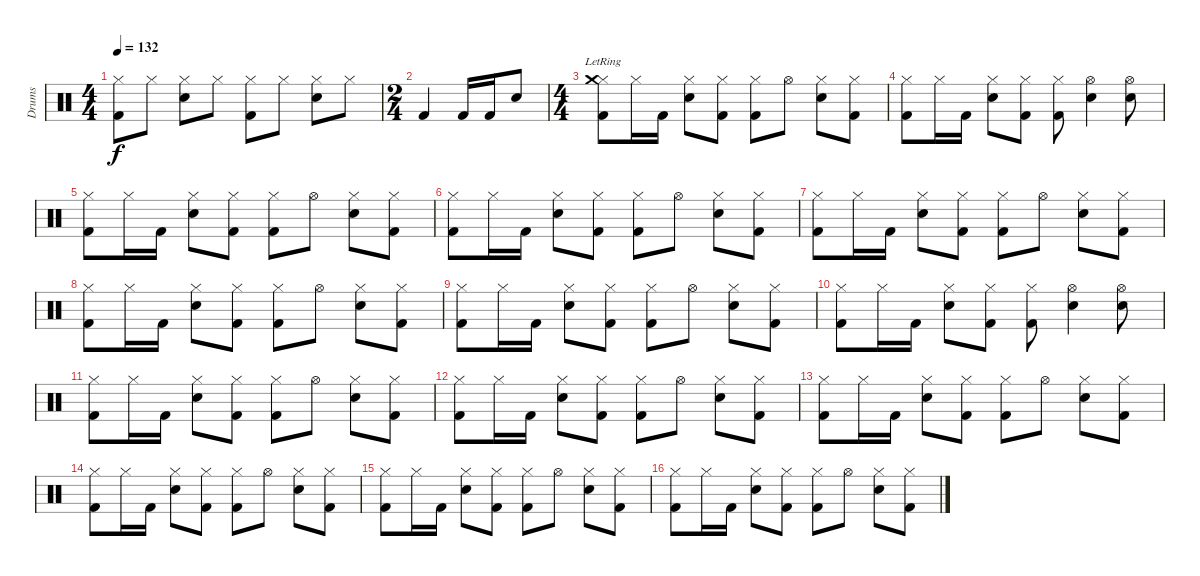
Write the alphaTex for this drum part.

\track ("Drums" "Drums") {instrument percussion}
\staff {score}
\articulation defaults
\ts (4 4)
\tempo 132
\clef neutral
\ks c
("Kick (hit) 2" "Hi-Hat (closed)").8{dy f} "Hi-Hat (closed)".8 ("Electric Snare (hit)" "Hi-Hat (closed)").8 "Hi-Hat (closed)".8 ("Kick (hit) 2" "Hi-Hat (closed)").8 "Hi-Hat (closed)".8 ("Electric Snare (hit)" "Hi-Hat (closed)").8 "Hi-Hat (closed)".8 |
\ts (2 4)
"Kick (hit) 2".4 "Kick (hit) 2".16 "Kick (hit) 2".16 "Electric Snare (hit)".8 |
\ts (4 4)
("Kick (hit) 2" "Hi-Hat (closed)" "Crash medium (hit)"{lr}).8 "Hi-Hat (closed)".16 "Kick (hit) 2".16 ("Electric Snare (hit)" "Hi-Hat (closed)").8 ("Kick (hit) 2" "Hi-Hat (closed)").8 ("Kick (hit) 2" "Hi-Hat (closed)").8 "Hi-Hat (open)".8 ("Electric Snare (hit)" "Hi-Hat (closed)").8 ("Kick (hit) 2" "Hi-Hat (closed)").8 |
("Kick (hit) 2" "Hi-Hat (closed)").8 "Hi-Hat (closed)".16 "Kick (hit) 2".16 ("Electric Snare (hit)" "Hi-Hat (closed)").8 ("Kick (hit) 2" "Hi-Hat (closed)").8 ("Kick (hit) 2" "Hi-Hat (closed)").8 ("Electric Snare (hit)" "Hi-Hat (open)").4 ("Electric Snare (hit)" "Hi-Hat (open)").8 |
("Kick (hit) 2" "Hi-Hat (closed)").8 "Hi-Hat (closed)".16 "Kick (hit) 2".16 ("Electric Snare (hit)" "Hi-Hat (closed)").8 ("Kick (hit) 2" "Hi-Hat (closed)").8 ("Kick (hit) 2" "Hi-Hat (closed)").8 "Hi-Hat (open)".8 ("Electric Snare (hit)" "Hi-Hat (closed)").8 ("Kick (hit) 2" "Hi-Hat (closed)").8 |
("Kick (hit) 2" "Hi-Hat (closed)").8 "Hi-Hat (closed)".16 "Kick (hit) 2".16 ("Electric Snare (hit)" "Hi-Hat (closed)").8 ("Kick (hit) 2" "Hi-Hat (closed)").8 ("Kick (hit) 2" "Hi-Hat (closed)").8 "Hi-Hat (open)".8 ("Electric Snare (hit)" "Hi-Hat (closed)").8 ("Kick (hit) 2" "Hi-Hat (closed)").8 |
("Kick (hit) 2" "Hi-Hat (closed)").8 "Hi-Hat (closed)".16 "Kick (hit) 2".16 ("Electric Snare (hit)" "Hi-Hat (closed)").8 ("Kick (hit) 2" "Hi-Hat (closed)").8 ("Kick (hit) 2" "Hi-Hat (closed)").8 "Hi-Hat (open)".8 ("Electric Snare (hit)" "Hi-Hat (closed)").8 ("Kick (hit) 2" "Hi-Hat (closed)").8 |
("Kick (hit) 2" "Hi-Hat (closed)").8 "Hi-Hat (closed)".16 "Kick (hit) 2".16 ("Electric Snare (hit)" "Hi-Hat (closed)").8 ("Kick (hit) 2" "Hi-Hat (closed)").8 ("Kick (hit) 2" "Hi-Hat (closed)").8 "Hi-Hat (open)".8 ("Electric Snare (hit)" "Hi-Hat (closed)").8 ("Kick (hit) 2" "Hi-Hat (closed)").8 |
("Kick (hit) 2" "Hi-Hat (closed)").8 "Hi-Hat (closed)".16 "Kick (hit) 2".16 ("Electric Snare (hit)" "Hi-Hat (closed)").8 ("Kick (hit) 2" "Hi-Hat (closed)").8 ("Kick (hit) 2" "Hi-Hat (closed)").8 "Hi-Hat (open)".8 ("Electric Snare (hit)" "Hi-Hat (closed)").8 ("Kick (hit) 2" "Hi-Hat (closed)").8 |
("Kick (hit) 2" "Hi-Hat (closed)").8 "Hi-Hat (closed)".16 "Kick (hit) 2".16 ("Electric Snare (hit)" "Hi-Hat (closed)").8 ("Kick (hit) 2" "Hi-Hat (closed)").8 ("Kick (hit) 2" "Hi-Hat (closed)").8 ("Electric Snare (hit)" "Hi-Hat (open)").4 ("Electric Snare (hit)" "Hi-Hat (open)").8 |
("Kick (hit) 2" "Hi-Hat (closed)").8 "Hi-Hat (closed)".16 "Kick (hit) 2".16 ("Electric Snare (hit)" "Hi-Hat (closed)").8 ("Kick (hit) 2" "Hi-Hat (closed)").8 ("Kick (hit) 2" "Hi-Hat (closed)").8 "Hi-Hat (open)".8 ("Electric Snare (hit)" "Hi-Hat (closed)").8 ("Kick (hit) 2" "Hi-Hat (closed)").8 |
("Kick (hit) 2" "Hi-Hat (closed)").8 "Hi-Hat (closed)".16 "Kick (hit) 2".16 ("Electric Snare (hit)" "Hi-Hat (closed)").8 ("Kick (hit) 2" "Hi-Hat (closed)").8 ("Kick (hit) 2" "Hi-Hat (closed)").8 "Hi-Hat (open)".8 ("Electric Snare (hit)" "Hi-Hat (closed)").8 ("Kick (hit) 2" "Hi-Hat (closed)").8 |
("Kick (hit) 2" "Hi-Hat (closed)").8 "Hi-Hat (closed)".16 "Kick (hit) 2".16 ("Electric Snare (hit)" "Hi-Hat (closed)").8 ("Kick (hit) 2" "Hi-Hat (closed)").8 ("Kick (hit) 2" "Hi-Hat (closed)").8 "Hi-Hat (open)".8 ("Electric Snare (hit)" "Hi-Hat (closed)").8 ("Kick (hit) 2" "Hi-Hat (closed)").8 |
("Kick (hit) 2" "Hi-Hat (closed)").8 "Hi-Hat (closed)".16 "Kick (hit) 2".16 ("Electric Snare (hit)" "Hi-Hat (closed)").8 ("Kick (hit) 2" "Hi-Hat (closed)").8 ("Kick (hit) 2" "Hi-Hat (closed)").8 "Hi-Hat (open)".8 ("Electric Snare (hit)" "Hi-Hat (closed)").8 ("Kick (hit) 2" "Hi-Hat (closed)").8 |
("Kick (hit) 2" "Hi-Hat (closed)").8 "Hi-Hat (closed)".16 "Kick (hit) 2".16 ("Electric Snare (hit)" "Hi-Hat (closed)").8 ("Kick (hit) 2" "Hi-Hat (closed)").8 ("Kick (hit) 2" "Hi-Hat (closed)").8 "Hi-Hat (open)".8 ("Electric Snare (hit)" "Hi-Hat (closed)").8 ("Kick (hit) 2" "Hi-Hat (closed)").8 |
("Kick (hit) 2" "Hi-Hat (closed)").8 "Hi-Hat (closed)".16 "Kick (hit) 2".16 ("Electric Snare (hit)" "Hi-Hat (closed)").8 ("Kick (hit) 2" "Hi-Hat (closed)").8 ("Kick (hit) 2" "Hi-Hat (closed)").8 "Hi-Hat (open)".8 ("Electric Snare (hit)" "Hi-Hat (closed)").8 ("Kick (hit) 2" "Hi-Hat (closed)").8
